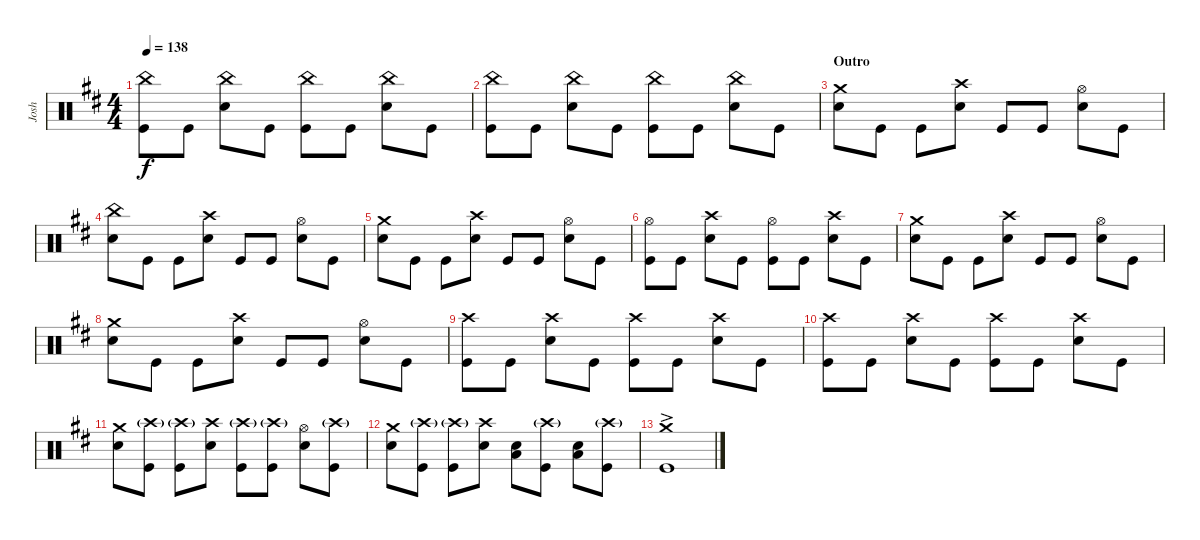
\track ("Josh" "Josh") {instrument percussion}
\staff {score}
\articulation defaults
\ts (4 4)
\tempo 138
\clef neutral
\ks d
("Kick (hit)" "China (hit)").8{dy f} "Kick (hit)".8 ("Snare (hit) 2" "China (hit)").8 "Kick (hit)".8 ("Kick (hit)" "China (hit)").8 "Kick (hit)".8 ("Snare (hit) 2" "China (hit)").8 "Kick (hit)".8 |
("Kick (hit)" "China (hit)").8 "Kick (hit)".8 ("Snare (hit) 2" "China (hit)").8 "Kick (hit)".8 ("Kick (hit)" "China (hit)").8 "Kick (hit)".8 ("Snare (hit) 2" "China (hit)").8 "Kick (hit)".8 |
\section ("" "Outro")
("Snare (hit) 2" "Crash medium (hit)").8 "Kick (hit)".8 "Kick (hit)".8 ("Snare (hit) 2" "Crash high (hit)").8 "Kick (hit)".8 "Kick (hit)".8 ("Snare (hit) 2" "Hi-Hat (open)").8 "Kick (hit)".8 |
("Snare (hit) 2" "China (hit)").8 "Kick (hit)".8 "Kick (hit)".8 ("Snare (hit) 2" "Crash high (hit)").8 "Kick (hit)".8 "Kick (hit)".8 ("Snare (hit) 2" "Hi-Hat (open)").8 "Kick (hit)".8 |
("Snare (hit) 2" "Crash medium (hit)").8 "Kick (hit)".8 "Kick (hit)".8 ("Snare (hit) 2" "Crash high (hit)").8 "Kick (hit)".8 "Kick (hit)".8 ("Snare (hit) 2" "Hi-Hat (open)").8 "Kick (hit)".8 |
("Kick (hit)" "Hi-Hat (open)").8 "Kick (hit)".8 ("Snare (hit) 2" "Crash high (hit)").8 "Kick (hit)".8 ("Kick (hit)" "Hi-Hat (open)").8 "Kick (hit)".8 ("Snare (hit) 2" "Crash high (hit)").8 "Kick (hit)".8 |
("Snare (hit) 2" "Crash medium (hit)").8 "Kick (hit)".8 "Kick (hit)".8 ("Snare (hit) 2" "Crash high (hit)").8 "Kick (hit)".8 "Kick (hit)".8 ("Snare (hit) 2" "Hi-Hat (open)").8 "Kick (hit)".8 |
("Snare (hit) 2" "Crash medium (hit)").8 "Kick (hit)".8 "Kick (hit)".8 ("Snare (hit) 2" "Crash high (hit)").8 "Kick (hit)".8 "Kick (hit)".8 ("Snare (hit) 2" "Hi-Hat (open)").8 "Kick (hit)".8 |
("Kick (hit)" "Crash high (hit)").8 "Kick (hit)".8 ("Snare (hit) 2" "Crash high (hit)").8 "Kick (hit)".8 ("Kick (hit)" "Crash high (hit)").8 "Kick (hit)".8 ("Snare (hit) 2" "Crash high (hit)").8 "Kick (hit)".8 |
("Kick (hit)" "Crash high (hit)").8 "Kick (hit)".8 ("Snare (hit) 2" "Crash high (hit)").8 "Kick (hit)".8 ("Kick (hit)" "Crash high (hit)").8 "Kick (hit)".8 ("Snare (hit) 2" "Crash high (hit)").8 "Kick (hit)".8 |
("Snare (hit) 2" "Crash medium (hit)").8 ("Kick (hit)" "Crash high (hit)"{g}).8 ("Kick (hit)" "Crash high (hit)"{g}).8 ("Snare (hit) 2" "Crash high (hit)").8 ("Kick (hit)" "Crash high (hit)"{g}).8 ("Kick (hit)" "Crash high (hit)"{g}).8 ("Snare (hit) 2" "Hi-Hat (open)").8 ("Kick (hit)" "Crash high (hit)"{g}).8 |
("Snare (hit) 2" "Crash medium (hit)").8 ("Kick (hit)" "Crash high (hit)"{g}).8 ("Kick (hit)" "Crash high (hit)"{g}).8 ("Snare (hit) 2" "Crash high (hit)").8 ("Snare (hit) 2" "Low Floor Tom (hit)").8 ("Kick (hit)" "Crash high (hit)"{g}).8 ("Snare (hit) 2" "Low Floor Tom (hit)").8 ("Kick (hit)" "Crash high (hit)"{g}).8 |
("Kick (hit)"{ac} "Crash medium (hit)"{ac}).1
